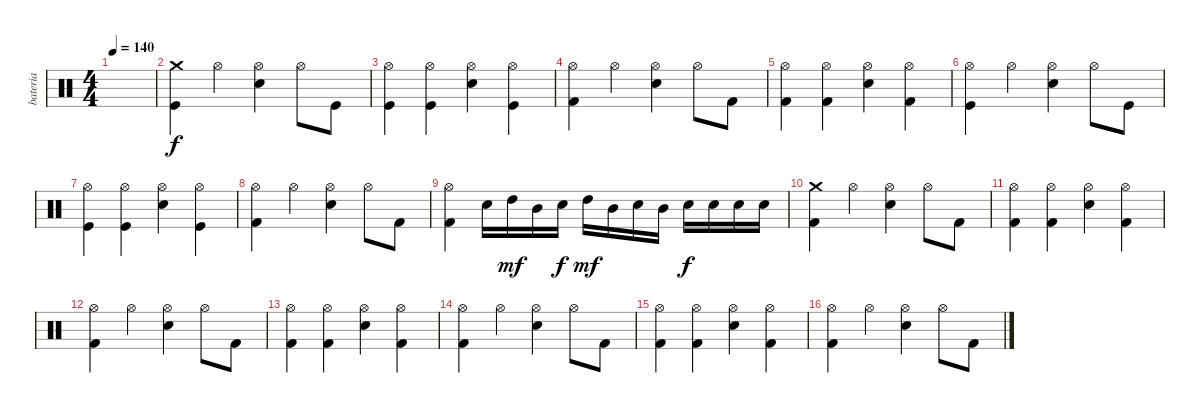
\track ("bateria" "bateria") {instrument percussion}
\staff {score}
\articulation defaults
\ts (4 4)
\tempo 140
\clef neutral
\ks c
|
("Crash medium (hit)" "Kick (hit)").4 "Hi-Hat (open)".4 ("Hi-Hat (open)" "Electric Snare (hit)").4 "Hi-Hat (open)".8 "Kick (hit)".8 |
("Hi-Hat (open)" "Kick (hit)").4 ("Hi-Hat (open)" "Kick (hit)").4 ("Hi-Hat (open)" "Electric Snare (hit)").4 ("Hi-Hat (open)" "Kick (hit)").4 |
("Hi-Hat (open)" "Kick (hit) 2").4 "Hi-Hat (open)".4 ("Hi-Hat (open)" "Electric Snare (hit)").4 "Hi-Hat (open)".8 "Kick (hit) 2".8 |
("Hi-Hat (open)" "Kick (hit) 2").4 ("Hi-Hat (open)" "Kick (hit) 2").4 ("Hi-Hat (open)" "Electric Snare (hit)").4 ("Hi-Hat (open)" "Kick (hit) 2").4 |
("Hi-Hat (open)" "Kick (hit)").4 "Hi-Hat (open)".4 ("Hi-Hat (open)" "Electric Snare (hit)").4 "Hi-Hat (open)".8 "Kick (hit)".8 |
("Hi-Hat (open)" "Kick (hit)").4 ("Hi-Hat (open)" "Kick (hit)").4 ("Hi-Hat (open)" "Electric Snare (hit)").4 ("Hi-Hat (open)" "Kick (hit)").4 |
("Hi-Hat (open)" "Kick (hit) 2").4 "Hi-Hat (open)".4 ("Hi-Hat (open)" "Electric Snare (hit)").4 "Hi-Hat (open)".8 "Kick (hit) 2".8 |
("Hi-Hat (open)" "Kick (hit) 2").4 "Electric Snare (hit)".16 "High Tom (hit)".16{dy mf} "Mid Tom (hit)".16 "Electric Snare (hit)".16{dy f} "High Tom (hit)".16{dy mf} "Mid Tom (hit)".16 "Electric Snare (hit)".16 "Mid Tom (hit)".16 "Electric Snare (hit)".16{dy f} "Electric Snare (hit)".16 "Electric Snare (hit)".16 "Electric Snare (hit)".16 |
("Crash medium (hit)" "Kick (hit) 2").4 "Hi-Hat (open)".4 ("Hi-Hat (open)" "Electric Snare (hit)").4 "Hi-Hat (open)".8 "Kick (hit) 2".8 |
("Hi-Hat (open)" "Kick (hit) 2").4 ("Hi-Hat (open)" "Kick (hit) 2").4 ("Hi-Hat (open)" "Electric Snare (hit)").4 ("Hi-Hat (open)" "Kick (hit) 2").4 |
("Hi-Hat (open)" "Kick (hit) 2").4 "Hi-Hat (open)".4 ("Hi-Hat (open)" "Electric Snare (hit)").4 "Hi-Hat (open)".8 "Kick (hit) 2".8 |
("Hi-Hat (open)" "Kick (hit) 2").4 ("Hi-Hat (open)" "Kick (hit) 2").4 ("Hi-Hat (open)" "Electric Snare (hit)").4 ("Hi-Hat (open)" "Kick (hit) 2").4 |
("Hi-Hat (open)" "Kick (hit) 2").4 "Hi-Hat (open)".4 ("Hi-Hat (open)" "Electric Snare (hit)").4 "Hi-Hat (open)".8 "Kick (hit) 2".8 |
("Hi-Hat (open)" "Kick (hit) 2").4 ("Hi-Hat (open)" "Kick (hit) 2").4 ("Hi-Hat (open)" "Electric Snare (hit)").4 ("Hi-Hat (open)" "Kick (hit) 2").4 |
("Hi-Hat (open)" "Kick (hit) 2").4 "Hi-Hat (open)".4 ("Hi-Hat (open)" "Electric Snare (hit)").4 "Hi-Hat (open)".8 "Kick (hit) 2".8
